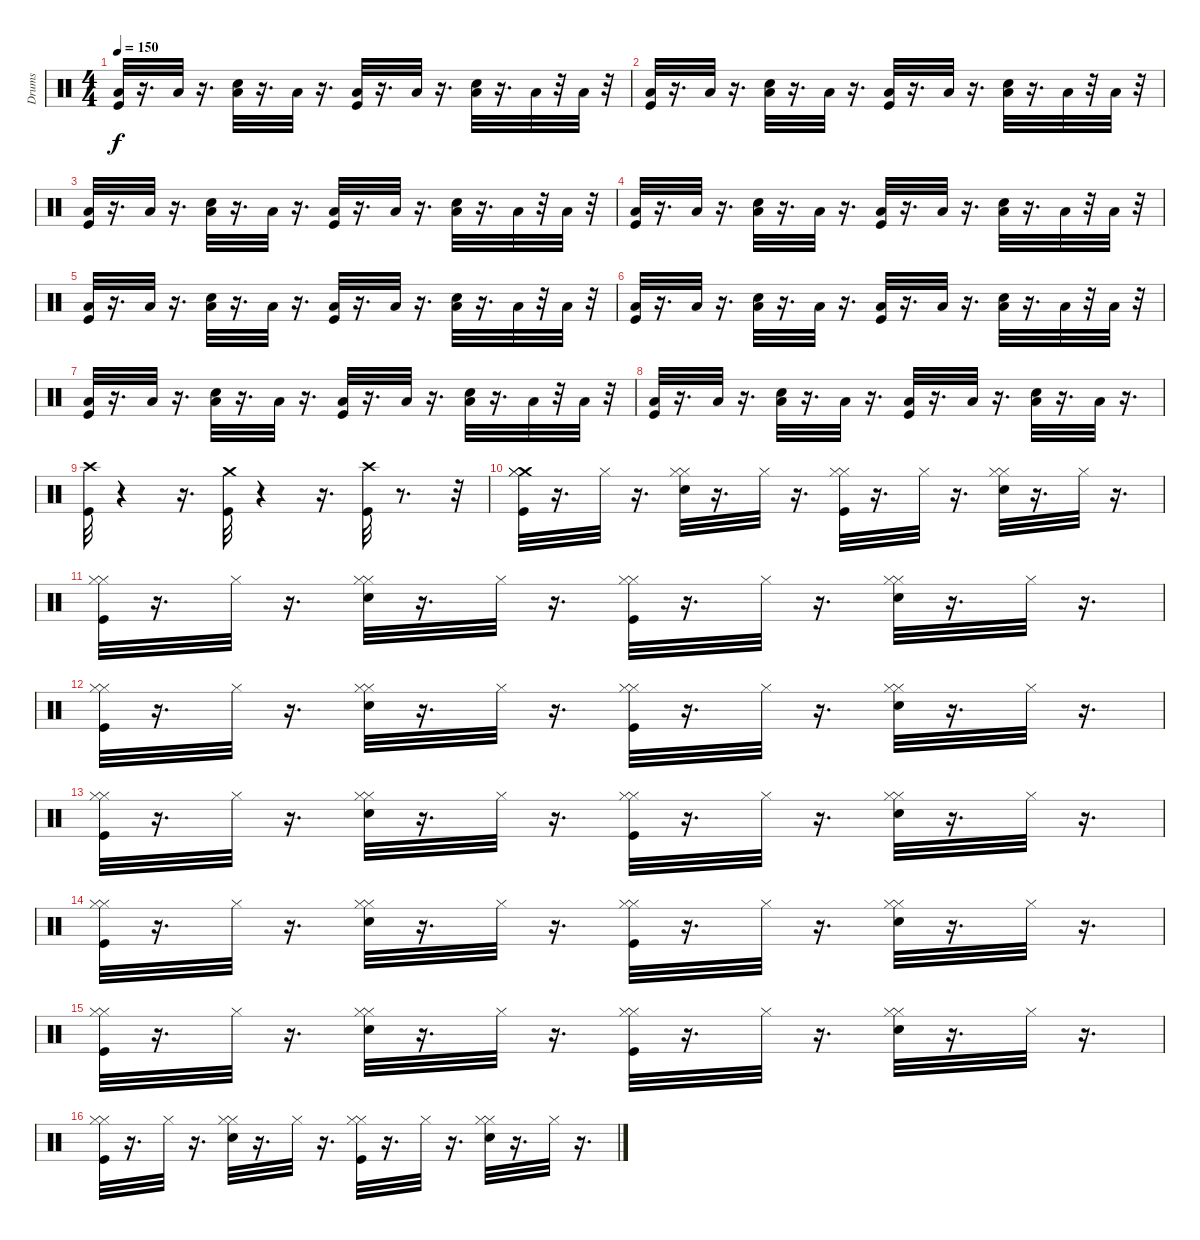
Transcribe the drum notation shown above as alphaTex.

\track ("Drums" "Drums") {instrument percussion}
\staff {score}
\articulation defaults
\ts (4 4)
\tempo 150
\clef neutral
\ks c
("Kick (hit)" "Low Floor Tom (hit)").32{dy f} r.16{d} "Low Floor Tom (hit)".32 r.16{d} ("Low Floor Tom (hit)" "Snare (hit) 2").32 r.16{d} "Low Floor Tom (hit)".32 r.16{d} ("Kick (hit)" "Low Floor Tom (hit)").32 r.16{d} "Low Floor Tom (hit)".32 r.16{d} ("Low Floor Tom (hit)" "Snare (hit) 2").32 r.16{d} "Low Floor Tom (hit)".32 r.32 "Low Floor Tom (hit)".32 r.32 |
("Kick (hit)" "Low Floor Tom (hit)").32 r.16{d} "Low Floor Tom (hit)".32 r.16{d} ("Low Floor Tom (hit)" "Snare (hit) 2").32 r.16{d} "Low Floor Tom (hit)".32 r.16{d} ("Low Floor Tom (hit)" "Kick (hit)").32 r.16{d} "Low Floor Tom (hit)".32 r.16{d} ("Snare (hit) 2" "Low Floor Tom (hit)").32 r.16{d} "Low Floor Tom (hit)".32 r.32 "Low Floor Tom (hit)".32 r.32 |
("Kick (hit)" "Low Floor Tom (hit)").32 r.16{d} "Low Floor Tom (hit)".32 r.16{d} ("Low Floor Tom (hit)" "Snare (hit) 2").32 r.16{d} "Low Floor Tom (hit)".32 r.16{d} ("Kick (hit)" "Low Floor Tom (hit)").32 r.16{d} "Low Floor Tom (hit)".32 r.16{d} ("Low Floor Tom (hit)" "Snare (hit) 2").32 r.16{d} "Low Floor Tom (hit)".32 r.32 "Low Floor Tom (hit)".32 r.32 |
("Kick (hit)" "Low Floor Tom (hit)").32 r.16{d} "Low Floor Tom (hit)".32 r.16{d} ("Low Floor Tom (hit)" "Snare (hit) 2").32 r.16{d} "Low Floor Tom (hit)".32 r.16{d} ("Low Floor Tom (hit)" "Kick (hit)").32 r.16{d} "Low Floor Tom (hit)".32 r.16{d} ("Snare (hit) 2" "Low Floor Tom (hit)").32 r.16{d} "Low Floor Tom (hit)".32 r.32 "Low Floor Tom (hit)".32 r.32 |
("Kick (hit)" "Low Floor Tom (hit)").32 r.16{d} "Low Floor Tom (hit)".32 r.16{d} ("Low Floor Tom (hit)" "Snare (hit) 2").32 r.16{d} "Low Floor Tom (hit)".32 r.16{d} ("Kick (hit)" "Low Floor Tom (hit)").32 r.16{d} "Low Floor Tom (hit)".32 r.16{d} ("Low Floor Tom (hit)" "Snare (hit) 2").32 r.16{d} "Low Floor Tom (hit)".32 r.32 "Low Floor Tom (hit)".32 r.32 |
("Kick (hit)" "Low Floor Tom (hit)").32 r.16{d} "Low Floor Tom (hit)".32 r.16{d} ("Low Floor Tom (hit)" "Snare (hit) 2").32 r.16{d} "Low Floor Tom (hit)".32 r.16{d} ("Low Floor Tom (hit)" "Kick (hit)").32 r.16{d} "Low Floor Tom (hit)".32 r.16{d} ("Snare (hit) 2" "Low Floor Tom (hit)").32 r.16{d} "Low Floor Tom (hit)".32 r.32 "Low Floor Tom (hit)".32 r.32 |
("Kick (hit)" "Low Floor Tom (hit)").32 r.16{d} "Low Floor Tom (hit)".32 r.16{d} ("Low Floor Tom (hit)" "Snare (hit) 2").32 r.16{d} "Low Floor Tom (hit)".32 r.16{d} ("Kick (hit)" "Low Floor Tom (hit)").32 r.16{d} "Low Floor Tom (hit)".32 r.16{d} ("Low Floor Tom (hit)" "Snare (hit) 2").32 r.16{d} "Low Floor Tom (hit)".32 r.32 "Low Floor Tom (hit)".32 r.32 |
("Kick (hit)" "Low Floor Tom (hit)").32 r.16{d} "Low Floor Tom (hit)".32 r.16{d} ("Low Floor Tom (hit)" "Snare (hit) 2").32 r.16{d} "Low Floor Tom (hit)".32 r.16{d} ("Low Floor Tom (hit)" "Kick (hit)").32 r.16{d} "Low Floor Tom (hit)".32 r.16{d} ("Snare (hit) 2" "Low Floor Tom (hit)").32 r.16{d} "Low Floor Tom (hit)".32 r.16{d} |
("Crash high (hit)" "Kick (hit)").32 r.4 r.16{d} ("Kick (hit)" "Crash medium (hit)").32 r.4 r.16{d} ("Crash high (hit)" "Kick (hit)").32 r.8{d} r.32 |
("Crash medium (hit)" "Hi-Hat (closed)" "Hi-Hat (closed)" "Kick (hit)").32 r.16{d} "Hi-Hat (closed)".32 r.16{d} ("Hi-Hat (closed)" "Hi-Hat (closed)" "Snare (hit) 2").32 r.16{d} "Hi-Hat (closed)".32 r.16{d} ("Hi-Hat (closed)" "Hi-Hat (closed)" "Kick (hit)").32 r.16{d} "Hi-Hat (closed)".32 r.16{d} ("Hi-Hat (closed)" "Hi-Hat (closed)" "Snare (hit) 2").32 r.16{d} "Hi-Hat (closed)".32 r.16{d} |
("Hi-Hat (closed)" "Hi-Hat (closed)" "Kick (hit)").32 r.16{d} "Hi-Hat (closed)".32 r.16{d} ("Hi-Hat (closed)" "Hi-Hat (closed)" "Snare (hit) 2").32 r.16{d} "Hi-Hat (closed)".32 r.16{d} ("Hi-Hat (closed)" "Hi-Hat (closed)" "Kick (hit)").32 r.16{d} "Hi-Hat (closed)".32 r.16{d} ("Hi-Hat (closed)" "Hi-Hat (closed)" "Snare (hit) 2").32 r.16{d} "Hi-Hat (closed)".32 r.16{d} |
("Hi-Hat (closed)" "Hi-Hat (closed)" "Kick (hit)").32 r.16{d} "Hi-Hat (closed)".32 r.16{d} ("Hi-Hat (closed)" "Hi-Hat (closed)" "Snare (hit) 2").32 r.16{d} "Hi-Hat (closed)".32 r.16{d} ("Hi-Hat (closed)" "Hi-Hat (closed)" "Kick (hit)").32 r.16{d} "Hi-Hat (closed)".32 r.16{d} ("Hi-Hat (closed)" "Hi-Hat (closed)" "Snare (hit) 2").32 r.16{d} "Hi-Hat (closed)".32 r.16{d} |
("Hi-Hat (closed)" "Hi-Hat (closed)" "Kick (hit)").32 r.16{d} "Hi-Hat (closed)".32 r.16{d} ("Hi-Hat (closed)" "Hi-Hat (closed)" "Snare (hit) 2").32 r.16{d} "Hi-Hat (closed)".32 r.16{d} ("Hi-Hat (closed)" "Hi-Hat (closed)" "Kick (hit)").32 r.16{d} "Hi-Hat (closed)".32 r.16{d} ("Hi-Hat (closed)" "Hi-Hat (closed)" "Snare (hit) 2").32 r.16{d} "Hi-Hat (closed)".32 r.16{d} |
("Hi-Hat (closed)" "Hi-Hat (closed)" "Kick (hit)").32 r.16{d} "Hi-Hat (closed)".32 r.16{d} ("Hi-Hat (closed)" "Hi-Hat (closed)" "Snare (hit) 2").32 r.16{d} "Hi-Hat (closed)".32 r.16{d} ("Hi-Hat (closed)" "Hi-Hat (closed)" "Kick (hit)").32 r.16{d} "Hi-Hat (closed)".32 r.16{d} ("Hi-Hat (closed)" "Hi-Hat (closed)" "Snare (hit) 2").32 r.16{d} "Hi-Hat (closed)".32 r.16{d} |
("Hi-Hat (closed)" "Hi-Hat (closed)" "Kick (hit)").32 r.16{d} "Hi-Hat (closed)".32 r.16{d} ("Hi-Hat (closed)" "Hi-Hat (closed)" "Snare (hit) 2").32 r.16{d} "Hi-Hat (closed)".32 r.16{d} ("Hi-Hat (closed)" "Hi-Hat (closed)" "Kick (hit)").32 r.16{d} "Hi-Hat (closed)".32 r.16{d} ("Hi-Hat (closed)" "Hi-Hat (closed)" "Snare (hit) 2").32 r.16{d} "Hi-Hat (closed)".32 r.16{d} |
("Hi-Hat (closed)" "Hi-Hat (closed)" "Kick (hit)").32 r.16{d} "Hi-Hat (closed)".32 r.16{d} ("Hi-Hat (closed)" "Hi-Hat (closed)" "Snare (hit) 2").32 r.16{d} "Hi-Hat (closed)".32 r.16{d} ("Hi-Hat (closed)" "Hi-Hat (closed)" "Kick (hit)").32 r.16{d} "Hi-Hat (closed)".32 r.16{d} ("Hi-Hat (closed)" "Hi-Hat (closed)" "Snare (hit) 2").32 r.16{d} "Hi-Hat (closed)".32 r.16{d}
